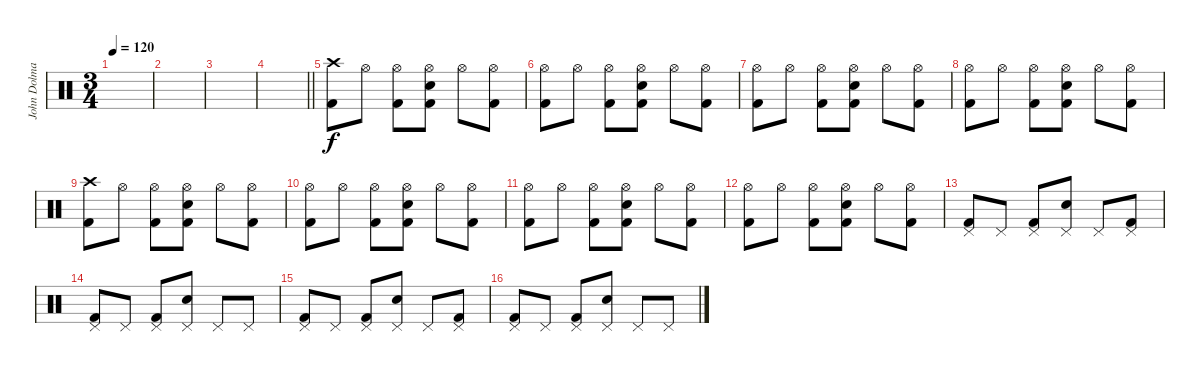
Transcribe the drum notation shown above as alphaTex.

\track ("John Dolmayan" "John Dolma") {instrument percussion}
\staff {score}
\articulation defaults
\ts (3 4)
\tempo 120
\clef neutral
\ks c
|
|
|
\barLineRight lightlight
|
("Crash high (hit)" "Kick (hit) 2").8 "Hi-Hat (open)".8 ("Hi-Hat (open)" "Kick (hit) 2").8 ("Hi-Hat (open)" "Electric Snare (hit)" "Kick (hit) 2").8 "Hi-Hat (open)".8 ("Hi-Hat (open)" "Kick (hit) 2").8 |
("Hi-Hat (open)" "Kick (hit) 2").8 "Hi-Hat (open)".8 ("Hi-Hat (open)" "Kick (hit) 2").8 ("Hi-Hat (open)" "Electric Snare (hit)" "Kick (hit) 2").8 "Hi-Hat (open)".8 ("Hi-Hat (open)" "Kick (hit) 2").8 |
("Hi-Hat (open)" "Kick (hit) 2").8 "Hi-Hat (open)".8 ("Hi-Hat (open)" "Kick (hit) 2").8 ("Hi-Hat (open)" "Electric Snare (hit)" "Kick (hit) 2").8 "Hi-Hat (open)".8 ("Hi-Hat (open)" "Kick (hit) 2").8 |
("Hi-Hat (open)" "Kick (hit) 2").8 "Hi-Hat (open)".8 ("Hi-Hat (open)" "Kick (hit) 2").8 ("Hi-Hat (open)" "Electric Snare (hit)" "Kick (hit) 2").8 "Hi-Hat (open)".8 ("Hi-Hat (open)" "Kick (hit) 2").8 |
("Crash high (hit)" "Kick (hit) 2").8 "Hi-Hat (open)".8 ("Hi-Hat (open)" "Kick (hit) 2").8 ("Hi-Hat (open)" "Electric Snare (hit)" "Kick (hit) 2").8 "Hi-Hat (open)".8 ("Hi-Hat (open)" "Kick (hit) 2").8 |
("Hi-Hat (open)" "Kick (hit) 2").8 "Hi-Hat (open)".8 ("Hi-Hat (open)" "Kick (hit) 2").8 ("Hi-Hat (open)" "Electric Snare (hit)" "Kick (hit) 2").8 "Hi-Hat (open)".8 ("Hi-Hat (open)" "Kick (hit) 2").8 |
("Hi-Hat (open)" "Kick (hit) 2").8 "Hi-Hat (open)".8 ("Hi-Hat (open)" "Kick (hit) 2").8 ("Hi-Hat (open)" "Electric Snare (hit)" "Kick (hit) 2").8 "Hi-Hat (open)".8 ("Hi-Hat (open)" "Kick (hit) 2").8 |
("Hi-Hat (open)" "Kick (hit) 2").8 "Hi-Hat (open)".8 ("Hi-Hat (open)" "Kick (hit) 2").8 ("Hi-Hat (open)" "Electric Snare (hit)" "Kick (hit) 2").8 "Hi-Hat (open)".8 ("Hi-Hat (open)" "Kick (hit) 2").8 |
("Pedal Hi-Hat (hit)" "Kick (hit) 2").8 "Pedal Hi-Hat (hit)".8 ("Pedal Hi-Hat (hit)" "Kick (hit) 2").8 ("Pedal Hi-Hat (hit)" "Electric Snare (hit)").8 "Pedal Hi-Hat (hit)".8 ("Pedal Hi-Hat (hit)" "Kick (hit) 2").8 |
("Pedal Hi-Hat (hit)" "Kick (hit) 2").8 "Pedal Hi-Hat (hit)".8 ("Pedal Hi-Hat (hit)" "Kick (hit) 2").8 ("Pedal Hi-Hat (hit)" "Electric Snare (hit)").8 "Pedal Hi-Hat (hit)".8 "Pedal Hi-Hat (hit)".8 |
("Pedal Hi-Hat (hit)" "Kick (hit) 2").8 "Pedal Hi-Hat (hit)".8 ("Pedal Hi-Hat (hit)" "Kick (hit) 2").8 ("Pedal Hi-Hat (hit)" "Electric Snare (hit)").8 "Pedal Hi-Hat (hit)".8 ("Pedal Hi-Hat (hit)" "Kick (hit) 2").8 |
("Pedal Hi-Hat (hit)" "Kick (hit) 2").8 "Pedal Hi-Hat (hit)".8 ("Pedal Hi-Hat (hit)" "Kick (hit) 2").8 ("Pedal Hi-Hat (hit)" "Electric Snare (hit)").8 "Pedal Hi-Hat (hit)".8 "Pedal Hi-Hat (hit)".8
